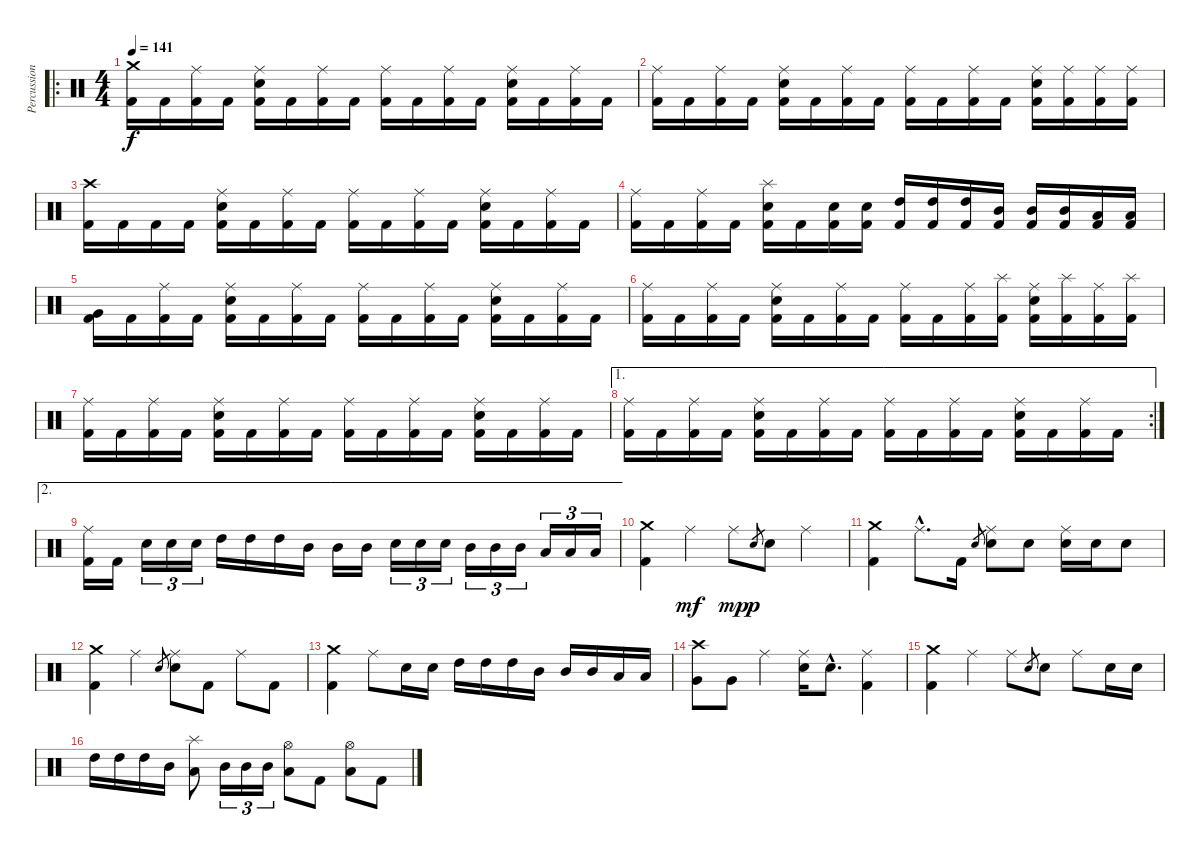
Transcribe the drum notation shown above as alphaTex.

\track ("Percussion" "Percussion") {instrument percussion}
\staff {score}
\articulation defaults
\ro
\ts (4 4)
\tempo 141
\clef neutral
\ks c
("Kick (hit) 2" "Crash medium (hit)").16{dy f} "Kick (hit) 2".16 ("Kick (hit) 2" "Ride (middle)").16 "Kick (hit) 2".16 ("Kick (hit) 2" "Electric Snare (hit)" "Ride (middle)").16 "Kick (hit) 2".16 ("Kick (hit) 2" "Ride (middle)").16 "Kick (hit) 2".16 ("Kick (hit) 2" "Ride (middle)").16 "Kick (hit) 2".16 ("Kick (hit) 2" "Ride (middle)").16 "Kick (hit) 2".16 ("Kick (hit) 2" "Electric Snare (hit)" "Ride (middle)").16 "Kick (hit) 2".16 ("Kick (hit) 2" "Ride (middle)").16 "Kick (hit) 2".16 |
("Kick (hit) 2" "Ride (middle)").16 "Kick (hit) 2".16 ("Kick (hit) 2" "Ride (middle)").16 "Kick (hit) 2".16 ("Kick (hit) 2" "Electric Snare (hit)" "Ride (middle)").16 "Kick (hit) 2".16 ("Kick (hit) 2" "Ride (middle)").16 "Kick (hit) 2".16 ("Kick (hit) 2" "Ride (middle)").16 "Kick (hit) 2".16 ("Kick (hit) 2" "Ride (middle)").16 "Kick (hit) 2".16 ("Kick (hit) 2" "Electric Snare (hit)" "Ride (middle)").16 ("Kick (hit) 2" "Ride (middle)").16 ("Kick (hit) 2" "Ride (middle)").16 ("Kick (hit) 2" "Ride (middle)").16 |
("Kick (hit) 2" "Crash high (hit)").16 "Kick (hit) 2".16 "Kick (hit) 2".16 "Kick (hit) 2".16 ("Kick (hit) 2" "Electric Snare (hit)" "Ride (middle)").16 "Kick (hit) 2".16 ("Kick (hit) 2" "Ride (middle)").16 "Kick (hit) 2".16 ("Kick (hit) 2" "Ride (middle)").16 "Kick (hit) 2".16 ("Kick (hit) 2" "Ride (middle)").16 "Kick (hit) 2".16 ("Kick (hit) 2" "Electric Snare (hit)" "Ride (middle)").16 "Kick (hit) 2".16 ("Kick (hit) 2" "Ride (middle)").16 "Kick (hit) 2".16 |
("Kick (hit) 2" "Ride (middle)").16 "Kick (hit) 2".16 ("Kick (hit) 2" "Ride (middle)").16 "Kick (hit) 2".16 ("Kick (hit) 2" "Electric Snare (hit)" "Splash (hit)").16 "Kick (hit) 2".16 ("Kick (hit) 2" "Electric Snare (hit)").16 ("Kick (hit) 2" "Electric Snare (hit)").16 ("Kick (hit) 2" "High Tom (hit)").16 ("Kick (hit) 2" "High Tom (hit)").16 ("Kick (hit) 2" "High Tom (hit)").16 ("Kick (hit) 2" "Mid Tom (hit)").16 ("Kick (hit) 2" "Mid Tom (hit)").16 ("Kick (hit) 2" "Mid Tom (hit)").16 ("Kick (hit) 2" "Low Tom (hit)").16 ("Kick (hit) 2" "Low Tom (hit)").16 |
("Kick (hit) 2" "Very Low Tom (hit)").16 "Kick (hit) 2".16 ("Kick (hit) 2" "Ride (middle)").16 "Kick (hit) 2".16 ("Kick (hit) 2" "Electric Snare (hit)" "Ride (middle)").16 "Kick (hit) 2".16 ("Kick (hit) 2" "Ride (middle)").16 "Kick (hit) 2".16 ("Kick (hit) 2" "Ride (middle)").16 "Kick (hit) 2".16 ("Kick (hit) 2" "Ride (middle)").16 "Kick (hit) 2".16 ("Kick (hit) 2" "Electric Snare (hit)" "Ride (middle)").16 "Kick (hit) 2".16 ("Kick (hit) 2" "Ride (middle)").16 "Kick (hit) 2".16 |
("Kick (hit) 2" "Ride (middle)").16 "Kick (hit) 2".16 ("Kick (hit) 2" "Ride (middle)").16 "Kick (hit) 2".16 ("Kick (hit) 2" "Electric Snare (hit)" "Ride (middle)").16 "Kick (hit) 2".16 ("Kick (hit) 2" "Ride (middle)").16 "Kick (hit) 2".16 ("Kick (hit) 2" "Ride (middle)").16 "Kick (hit) 2".16 ("Kick (hit) 2" "Ride (middle)").16 ("Kick (hit) 2" "Splash (hit)").16 ("Kick (hit) 2" "Electric Snare (hit)" "Ride (middle)").16 ("Kick (hit) 2" "Splash (hit)").16 ("Kick (hit) 2" "Ride (middle)").16 ("Kick (hit) 2" "Splash (hit)").16 |
("Kick (hit) 2" "Ride (middle)").16 "Kick (hit) 2".16 ("Kick (hit) 2" "Ride (middle)").16 "Kick (hit) 2".16 ("Kick (hit) 2" "Electric Snare (hit)" "Ride (middle)").16 "Kick (hit) 2".16 ("Kick (hit) 2" "Ride (middle)").16 "Kick (hit) 2".16 ("Kick (hit) 2" "Ride (middle)").16 "Kick (hit) 2".16 ("Kick (hit) 2" "Ride (middle)").16 "Kick (hit) 2".16 ("Kick (hit) 2" "Electric Snare (hit)" "Ride (middle)").16 "Kick (hit) 2".16 ("Kick (hit) 2" "Ride (middle)").16 "Kick (hit) 2".16 |
\ae 1
\rc 2
("Kick (hit) 2" "Ride (middle)").16 "Kick (hit) 2".16 ("Kick (hit) 2" "Ride (middle)").16 "Kick (hit) 2".16 ("Kick (hit) 2" "Electric Snare (hit)" "Ride (middle)").16 "Kick (hit) 2".16 ("Kick (hit) 2" "Ride (middle)").16 "Kick (hit) 2".16 ("Kick (hit) 2" "Ride (middle)").16 "Kick (hit) 2".16 ("Kick (hit) 2" "Ride (middle)").16 "Kick (hit) 2".16 ("Kick (hit) 2" "Electric Snare (hit)" "Ride (middle)").16 "Kick (hit) 2".16 ("Kick (hit) 2" "Ride (middle)").16 "Kick (hit) 2".16 |
\ae 2
("Kick (hit) 2" "Ride (middle)").16 "Kick (hit) 2".16 "Electric Snare (hit)".16{tu (3 2)} "Electric Snare (hit)".16{tu (3 2)} "Electric Snare (hit)".16{tu (3 2)} "High Tom (hit)".16 "High Tom (hit)".16 "High Tom (hit)".16 "Mid Tom (hit)".16 "Mid Tom (hit)".16 "Mid Tom (hit)".16 "Electric Snare (hit)".16{tu (3 2)} "Electric Snare (hit)".16{tu (3 2)} "Electric Snare (hit)".16{tu (3 2)} "Mid Tom (hit)".16{tu (3 2)} "Mid Tom (hit)".16{tu (3 2)} "Mid Tom (hit)".16{tu (3 2)} "Low Tom (hit)".16{tu (3 2)} "Low Tom (hit)".16{tu (3 2)} "Low Tom (hit)".16{tu (3 2)} |
("Kick (hit) 2" "Crash medium (hit)").4 "Ride (middle)".4{dy mf} "Ride (middle)".8{dy mp} "Electric Snare (hit)".8{gr dy p} "Electric Snare (hit)".8 "Ride (middle)".4 |
("Kick (hit) 2" "Crash medium (hit)").4 "Ride (middle)"{hac}.8{d} "Kick (hit) 2".16 "Electric Snare (hit)".8{gr} ("Electric Snare (hit)" "Ride (middle)").8 "Electric Snare (hit)".8 ("Electric Snare (hit)" "Ride (middle)").16 "Electric Snare (hit)".16 "Electric Snare (hit)".8 |
("Kick (hit) 2" "Crash medium (hit)").4 "Ride (middle)".4 "Electric Snare (hit)".8{gr} ("Electric Snare (hit)" "Ride (middle)").8 "Kick (hit) 2".8 "Ride (middle)".8 "Kick (hit) 2".8 |
("Kick (hit) 2" "Crash medium (hit)").4 "Ride (middle)".8 "Electric Snare (hit)".16 "Electric Snare (hit)".16 "High Tom (hit)".16 "High Tom (hit)".16 "High Tom (hit)".16 "Mid Tom (hit)".16 "Mid Tom (hit)".16 "Mid Tom (hit)".16 "Low Tom (hit)".16 "Low Tom (hit)".16 |
("Very Low Tom (hit)" "Crash high (hit)").8 "Very Low Tom (hit)".8 "Ride (middle)".4 ("Electric Snare (hit)" "Ride (middle)").16 "Electric Snare (hit)"{hac}.8{d} ("Kick (hit) 2" "Ride (middle)").4 |
("Kick (hit) 2" "Crash medium (hit)").4 "Ride (middle)".4 "Ride (middle)".8 "Electric Snare (hit)".8{gr} "Electric Snare (hit)".8 "Ride (middle)".8 "Electric Snare (hit)".16 "Electric Snare (hit)".16 |
"High Tom (hit)".16 "High Tom (hit)".16 "High Tom (hit)".16 "Mid Tom (hit)".16 ("Low Tom (hit)" "Splash (hit)").8 "Mid Tom (hit)".16{tu (3 2)} "Mid Tom (hit)".16{tu (3 2)} "Mid Tom (hit)".16{tu (3 2)} ("Low Tom (hit)" "Hi-Hat (open)").8 "Kick (hit) 2".8 ("Low Tom (hit)" "Hi-Hat (open)").8 "Kick (hit) 2".8
